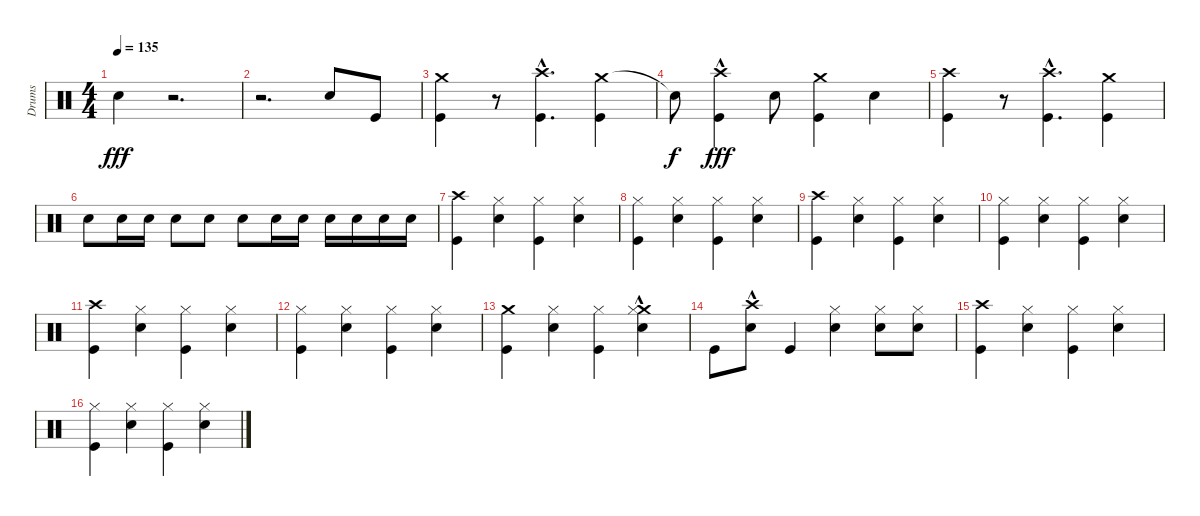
\track ("Drums" "Drums") {instrument percussion}
\staff {score}
\articulation defaults
\ts (4 4)
\tempo 135
\clef neutral
\ks c "Snare (hit) 2".4{dy fff}
r.2{d} |
r.2{d} "Snare (hit) 2".8 "Kick (hit)".8 |
("Crash medium (hit)" "Kick (hit)").4 r.8 ("Crash high (hit)"{hac} "Kick (hit)"{hac}).4{d} ("Crash medium (hit)" "Kick (hit)").4 |
"Snare (hit)"{t}.8{dy f} ("Kick (hit)"{hac} "Crash high (hit)").4{dy fff} "Snare (hit) 2".8 ("Crash medium (hit)" "Kick (hit)").4 "Snare (hit) 2".4 |
("Kick (hit)" "Crash high (hit)").4 r.8 ("Crash high (hit)"{hac} "Kick (hit)"{hac}).4{d} ("Crash medium (hit)" "Kick (hit)").4 |
"Snare (hit) 2".8 "Snare (hit) 2".16 "Snare (hit) 2".16 "Snare (hit) 2".8 "Snare (hit) 2".8 "Snare (hit) 2".8 "Snare (hit) 2".16 "Snare (hit) 2".16 "Snare (hit) 2".16 "Snare (hit) 2".16 "Snare (hit) 2".16 "Snare (hit) 2".16 |
("Kick (hit)" "Crash high (hit)").4 ("Hi-Hat (closed)" "Snare (hit) 2").4 ("Hi-Hat (closed)" "Kick (hit)").4 ("Hi-Hat (closed)" "Snare (hit) 2").4 |
("Kick (hit)" "Hi-Hat (closed)").4 ("Snare (hit) 2" "Hi-Hat (closed)").4 ("Kick (hit)" "Hi-Hat (closed)").4 ("Snare (hit) 2" "Hi-Hat (closed)").4 |
("Kick (hit)" "Crash high (hit)").4 ("Snare (hit) 2" "Hi-Hat (closed)").4 ("Kick (hit)" "Hi-Hat (closed)").4 ("Snare (hit) 2" "Hi-Hat (closed)").4 |
("Kick (hit)" "Hi-Hat (closed)").4 ("Snare (hit) 2" "Hi-Hat (closed)").4 ("Kick (hit)" "Hi-Hat (closed)").4 ("Snare (hit) 2" "Hi-Hat (closed)").4 |
("Kick (hit)" "Crash high (hit)").4 ("Snare (hit) 2" "Hi-Hat (closed)").4 ("Kick (hit)" "Hi-Hat (closed)").4 ("Snare (hit) 2" "Hi-Hat (closed)").4 |
("Kick (hit)" "Hi-Hat (closed)").4 ("Snare (hit) 2" "Hi-Hat (closed)").4 ("Kick (hit)" "Hi-Hat (closed)").4 ("Snare (hit) 2" "Hi-Hat (closed)").4 |
("Crash medium (hit)" "Kick (hit)").4 ("Hi-Hat (closed)" "Snare (hit) 2").4 ("Kick (hit)" "Hi-Hat (closed)").4 ("Crash medium (hit)"{hac} "Snare (hit) 2" "Hi-Hat (closed)").4 |
"Kick (hit)".8 ("Snare (hit) 2"{hac} "Crash high (hit)"{hac}).8 "Kick (hit)".4 ("Snare (hit) 2" "Hi-Hat (closed)").4 ("Snare (hit) 2" "Hi-Hat (closed)").8 ("Snare (hit) 2" "Hi-Hat (closed)").8 |
("Crash high (hit)" "Kick (hit)").4 ("Snare (hit) 2" "Hi-Hat (closed)").4 ("Kick (hit)" "Hi-Hat (closed)").4 ("Snare (hit) 2" "Hi-Hat (closed)").4 |
("Hi-Hat (closed)" "Kick (hit)").4 ("Snare (hit) 2" "Hi-Hat (closed)").4 ("Kick (hit)" "Hi-Hat (closed)").4 ("Snare (hit) 2" "Hi-Hat (closed)").4
